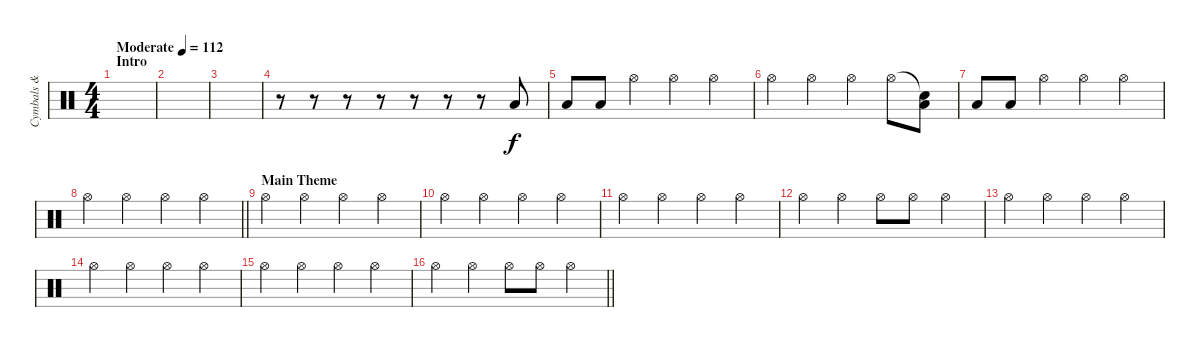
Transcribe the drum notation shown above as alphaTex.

\track ("Cymbals & Hi - Hats" "Cymbals & ") {instrument percussion}
\staff {score}
\articulation defaults
\ts (4 4)
\section ("" "Intro")
\tempo (112 "Moderate")
\clef neutral
\ks c
|
|
|
r.8 r.8 r.8 r.8 r.8 r.8 r.8 "Low Tom (hit)".8 |
"Low Tom (hit)".8 "Low Tom (hit)".8 "Hi-Hat (open)".4 "Hi-Hat (open)".4 "Hi-Hat (open)".4 |
"Hi-Hat (open)".4 "Hi-Hat (open)".4 "Hi-Hat (open)".4 "Hi-Hat (open)".8 ("Snare (hit)"{t} "Low Tom (hit)").8 |
"Low Tom (hit)".8 "Low Tom (hit)".8 "Hi-Hat (open)".4 "Hi-Hat (open)".4 "Hi-Hat (open)".4 |
\barLineRight lightlight "Hi-Hat (open)".4 "Hi-Hat (open)".4 "Hi-Hat (open)".4 "Hi-Hat (open)".4
|
\section ("" "Main Theme")
"Hi-Hat (open)".4 "Hi-Hat (open)".4 "Hi-Hat (open)".4 "Hi-Hat (open)".4 |
"Hi-Hat (open)".4 "Hi-Hat (open)".4 "Hi-Hat (open)".4 "Hi-Hat (open)".4 |
"Hi-Hat (open)".4 "Hi-Hat (open)".4 "Hi-Hat (open)".4 "Hi-Hat (open)".4 |
"Hi-Hat (open)".4 "Hi-Hat (open)".4 "Hi-Hat (open)".8 "Hi-Hat (open)".8 "Hi-Hat (open)".4 |
"Hi-Hat (open)".4 "Hi-Hat (open)".4 "Hi-Hat (open)".4 "Hi-Hat (open)".4 |
"Hi-Hat (open)".4 "Hi-Hat (open)".4 "Hi-Hat (open)".4 "Hi-Hat (open)".4 |
"Hi-Hat (open)".4 "Hi-Hat (open)".4 "Hi-Hat (open)".4 "Hi-Hat (open)".4 |
\barLineRight lightlight "Hi-Hat (open)".4 "Hi-Hat (open)".4 "Hi-Hat (open)".8 "Hi-Hat (open)".8 "Hi-Hat (open)".4
